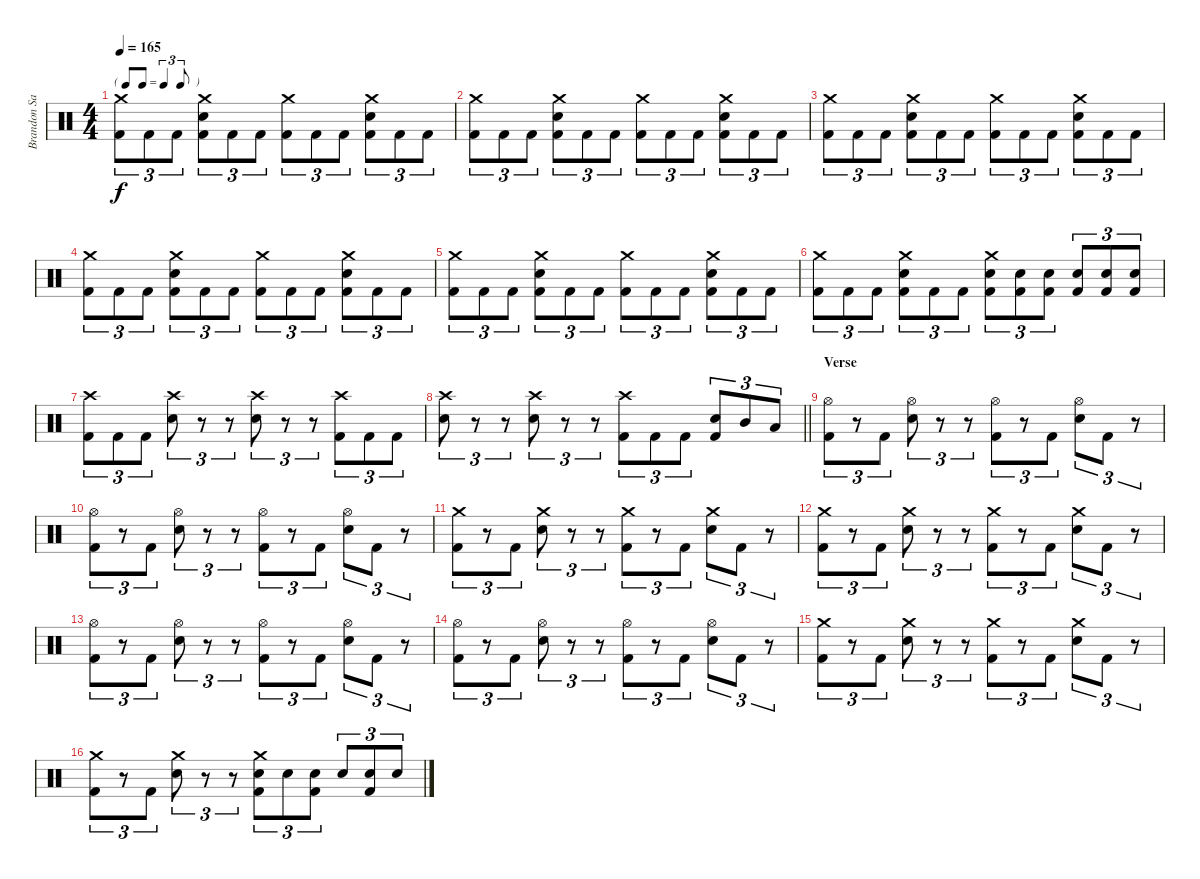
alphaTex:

\track ("Brandon Saller" "Brandon Sa") {instrument percussion}
\staff {score}
\articulation defaults
\ts (4 4)
\tf triplet8th
\tempo 165
\clef neutral
\ks c
("Crash medium (hit)" "Kick (hit) 2").8{tu (3 2) dy f} "Kick (hit) 2".8{tu (3 2)} "Kick (hit) 2".8{tu (3 2)} ("Crash medium (hit)" "Electric Snare (hit)" "Kick (hit) 2").8{tu (3 2)} "Kick (hit) 2".8{tu (3 2)} "Kick (hit) 2".8{tu (3 2)} ("Crash medium (hit)" "Kick (hit) 2").8{tu (3 2)} "Kick (hit) 2".8{tu (3 2)} "Kick (hit) 2".8{tu (3 2)} ("Crash medium (hit)" "Electric Snare (hit)" "Kick (hit) 2").8{tu (3 2)} "Kick (hit) 2".8{tu (3 2)} "Kick (hit) 2".8{tu (3 2)} |
("Crash medium (hit)" "Kick (hit) 2").8{tu (3 2)} "Kick (hit) 2".8{tu (3 2)} "Kick (hit) 2".8{tu (3 2)} ("Crash medium (hit)" "Electric Snare (hit)" "Kick (hit) 2").8{tu (3 2)} "Kick (hit) 2".8{tu (3 2)} "Kick (hit) 2".8{tu (3 2)} ("Crash medium (hit)" "Kick (hit) 2").8{tu (3 2)} "Kick (hit) 2".8{tu (3 2)} "Kick (hit) 2".8{tu (3 2)} ("Crash medium (hit)" "Electric Snare (hit)" "Kick (hit) 2").8{tu (3 2)} "Kick (hit) 2".8{tu (3 2)} "Kick (hit) 2".8{tu (3 2)} |
("Crash medium (hit)" "Kick (hit) 2").8{tu (3 2)} "Kick (hit) 2".8{tu (3 2)} "Kick (hit) 2".8{tu (3 2)} ("Crash medium (hit)" "Electric Snare (hit)" "Kick (hit) 2").8{tu (3 2)} "Kick (hit) 2".8{tu (3 2)} "Kick (hit) 2".8{tu (3 2)} ("Crash medium (hit)" "Kick (hit) 2").8{tu (3 2)} "Kick (hit) 2".8{tu (3 2)} "Kick (hit) 2".8{tu (3 2)} ("Crash medium (hit)" "Electric Snare (hit)" "Kick (hit) 2").8{tu (3 2)} "Kick (hit) 2".8{tu (3 2)} "Kick (hit) 2".8{tu (3 2)} |
("Crash medium (hit)" "Kick (hit) 2").8{tu (3 2)} "Kick (hit) 2".8{tu (3 2)} "Kick (hit) 2".8{tu (3 2)} ("Crash medium (hit)" "Electric Snare (hit)" "Kick (hit) 2").8{tu (3 2)} "Kick (hit) 2".8{tu (3 2)} "Kick (hit) 2".8{tu (3 2)} ("Crash medium (hit)" "Kick (hit) 2").8{tu (3 2)} "Kick (hit) 2".8{tu (3 2)} "Kick (hit) 2".8{tu (3 2)} ("Crash medium (hit)" "Electric Snare (hit)" "Kick (hit) 2").8{tu (3 2)} "Kick (hit) 2".8{tu (3 2)} "Kick (hit) 2".8{tu (3 2)} |
("Crash medium (hit)" "Kick (hit) 2").8{tu (3 2)} "Kick (hit) 2".8{tu (3 2)} "Kick (hit) 2".8{tu (3 2)} ("Crash medium (hit)" "Electric Snare (hit)" "Kick (hit) 2").8{tu (3 2)} "Kick (hit) 2".8{tu (3 2)} "Kick (hit) 2".8{tu (3 2)} ("Crash medium (hit)" "Kick (hit) 2").8{tu (3 2)} "Kick (hit) 2".8{tu (3 2)} "Kick (hit) 2".8{tu (3 2)} ("Crash medium (hit)" "Electric Snare (hit)" "Kick (hit) 2").8{tu (3 2)} "Kick (hit) 2".8{tu (3 2)} "Kick (hit) 2".8{tu (3 2)} |
("Crash medium (hit)" "Kick (hit) 2").8{tu (3 2)} "Kick (hit) 2".8{tu (3 2)} "Kick (hit) 2".8{tu (3 2)} ("Crash medium (hit)" "Electric Snare (hit)" "Kick (hit) 2").8{tu (3 2)} "Kick (hit) 2".8{tu (3 2)} "Kick (hit) 2".8{tu (3 2)} ("Crash medium (hit)" "Electric Snare (hit)" "Kick (hit) 2").8{tu (3 2)} ("Electric Snare (hit)" "Kick (hit) 2").8{tu (3 2)} ("Electric Snare (hit)" "Kick (hit) 2").8{tu (3 2)} ("Electric Snare (hit)" "Kick (hit) 2").8{tu (3 2)} ("Electric Snare (hit)" "Kick (hit) 2").8{tu (3 2)} ("Electric Snare (hit)" "Kick (hit) 2").8{tu (3 2)} |
("Crash high (hit)" "Kick (hit) 2").8{tu (3 2)} "Kick (hit) 2".8{tu (3 2)} "Kick (hit) 2".8{tu (3 2)} ("Crash high (hit)" "Electric Snare (hit)").8{tu (3 2)} r.8{tu (3 2)} r.8{tu (3 2)} ("Crash high (hit)" "Electric Snare (hit)").8{tu (3 2)} r.8{tu (3 2)} r.8{tu (3 2)} ("Crash high (hit)" "Kick (hit) 2").8{tu (3 2)} "Kick (hit) 2".8{tu (3 2)} "Kick (hit) 2".8{tu (3 2)} |
\barLineRight lightlight
("Crash high (hit)" "Electric Snare (hit)").8{tu (3 2)} r.8{tu (3 2)} r.8{tu (3 2)} ("Crash high (hit)" "Electric Snare (hit)").8{tu (3 2)} r.8{tu (3 2)} r.8{tu (3 2)} ("Crash high (hit)" "Kick (hit) 2").8{tu (3 2)} "Kick (hit) 2".8{tu (3 2)} "Kick (hit) 2".8{tu (3 2)} ("Electric Snare (hit)" "Kick (hit) 2").8{tu (3 2)} "Mid Tom (hit)".8{tu (3 2)} "Low Tom (hit)".8{tu (3 2)} |
\section ("" "Verse")
("Hi-Hat (open)" "Kick (hit) 2").8{tu (3 2)} r.8{tu (3 2)} "Kick (hit) 2".8{tu (3 2)} ("Hi-Hat (open)" "Electric Snare (hit)").8{tu (3 2)} r.8{tu (3 2)} r.8{tu (3 2)} ("Hi-Hat (open)" "Kick (hit) 2").8{tu (3 2)} r.8{tu (3 2)} "Kick (hit) 2".8{tu (3 2)} ("Hi-Hat (open)" "Electric Snare (hit)").8{tu (3 2)} "Kick (hit) 2".8{tu (3 2)} r.8{tu (3 2)} |
("Hi-Hat (open)" "Kick (hit) 2").8{tu (3 2)} r.8{tu (3 2)} "Kick (hit) 2".8{tu (3 2)} ("Hi-Hat (open)" "Electric Snare (hit)").8{tu (3 2)} r.8{tu (3 2)} r.8{tu (3 2)} ("Hi-Hat (open)" "Kick (hit) 2").8{tu (3 2)} r.8{tu (3 2)} "Kick (hit) 2".8{tu (3 2)} ("Hi-Hat (open)" "Electric Snare (hit)").8{tu (3 2)} "Kick (hit) 2".8{tu (3 2)} r.8{tu (3 2)} |
("Crash medium (hit)" "Kick (hit) 2").8{tu (3 2)} r.8{tu (3 2)} "Kick (hit) 2".8{tu (3 2)} ("Crash medium (hit)" "Electric Snare (hit)").8{tu (3 2)} r.8{tu (3 2)} r.8{tu (3 2)} ("Crash medium (hit)" "Kick (hit) 2").8{tu (3 2)} r.8{tu (3 2)} "Kick (hit) 2".8{tu (3 2)} ("Crash medium (hit)" "Electric Snare (hit)").8{tu (3 2)} "Kick (hit) 2".8{tu (3 2)} r.8{tu (3 2)} |
("Crash medium (hit)" "Kick (hit) 2").8{tu (3 2)} r.8{tu (3 2)} "Kick (hit) 2".8{tu (3 2)} ("Crash medium (hit)" "Electric Snare (hit)").8{tu (3 2)} r.8{tu (3 2)} r.8{tu (3 2)} ("Crash medium (hit)" "Kick (hit) 2").8{tu (3 2)} r.8{tu (3 2)} "Kick (hit) 2".8{tu (3 2)} ("Crash medium (hit)" "Electric Snare (hit)").8{tu (3 2)} "Kick (hit) 2".8{tu (3 2)} r.8{tu (3 2)} |
("Hi-Hat (open)" "Kick (hit) 2").8{tu (3 2)} r.8{tu (3 2)} "Kick (hit) 2".8{tu (3 2)} ("Hi-Hat (open)" "Electric Snare (hit)").8{tu (3 2)} r.8{tu (3 2)} r.8{tu (3 2)} ("Hi-Hat (open)" "Kick (hit) 2").8{tu (3 2)} r.8{tu (3 2)} "Kick (hit) 2".8{tu (3 2)} ("Hi-Hat (open)" "Electric Snare (hit)").8{tu (3 2)} "Kick (hit) 2".8{tu (3 2)} r.8{tu (3 2)} |
("Hi-Hat (open)" "Kick (hit) 2").8{tu (3 2)} r.8{tu (3 2)} "Kick (hit) 2".8{tu (3 2)} ("Hi-Hat (open)" "Electric Snare (hit)").8{tu (3 2)} r.8{tu (3 2)} r.8{tu (3 2)} ("Hi-Hat (open)" "Kick (hit) 2").8{tu (3 2)} r.8{tu (3 2)} "Kick (hit) 2".8{tu (3 2)} ("Hi-Hat (open)" "Electric Snare (hit)").8{tu (3 2)} "Kick (hit) 2".8{tu (3 2)} r.8{tu (3 2)} |
("Crash medium (hit)" "Kick (hit) 2").8{tu (3 2)} r.8{tu (3 2)} "Kick (hit) 2".8{tu (3 2)} ("Crash medium (hit)" "Electric Snare (hit)").8{tu (3 2)} r.8{tu (3 2)} r.8{tu (3 2)} ("Crash medium (hit)" "Kick (hit) 2").8{tu (3 2)} r.8{tu (3 2)} "Kick (hit) 2".8{tu (3 2)} ("Crash medium (hit)" "Electric Snare (hit)").8{tu (3 2)} "Kick (hit) 2".8{tu (3 2)} r.8{tu (3 2)} |
("Crash medium (hit)" "Kick (hit) 2").8{tu (3 2)} r.8{tu (3 2)} "Kick (hit) 2".8{tu (3 2)} ("Crash medium (hit)" "Electric Snare (hit)").8{tu (3 2)} r.8{tu (3 2)} r.8{tu (3 2)} ("Crash medium (hit)" "Electric Snare (hit)" "Kick (hit) 2").8{tu (3 2)} "Electric Snare (hit)".8{tu (3 2)} ("Electric Snare (hit)" "Kick (hit) 2").8{tu (3 2)} "Electric Snare (hit)".8{tu (3 2)} ("Electric Snare (hit)" "Kick (hit) 2").8{tu (3 2)} "Electric Snare (hit)".8{tu (3 2)}
